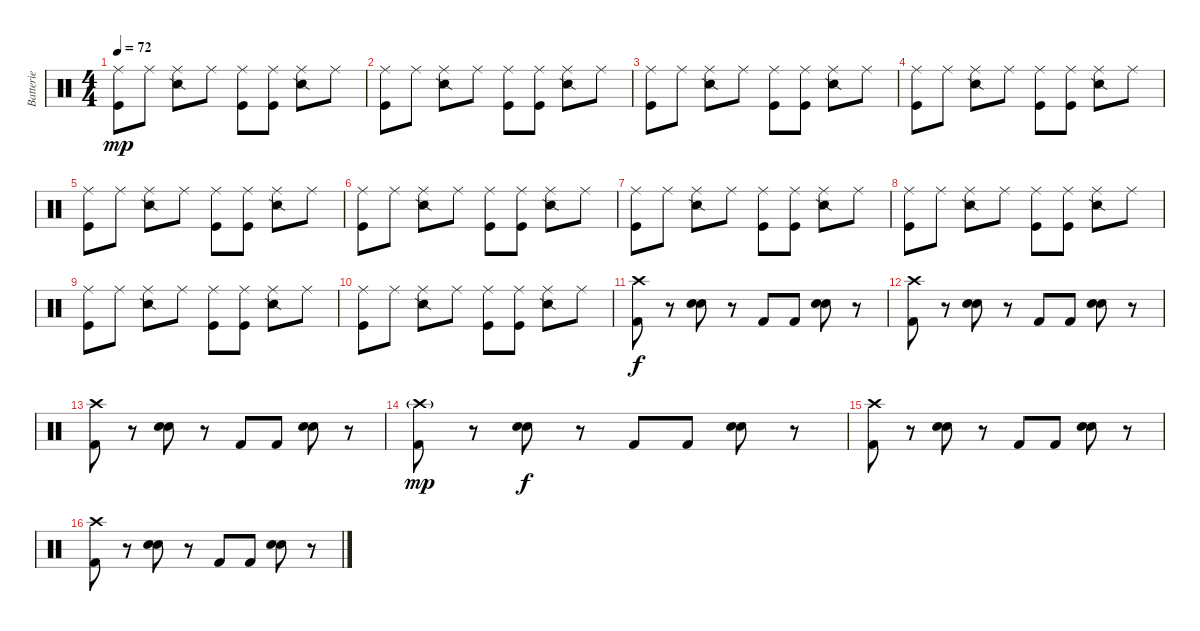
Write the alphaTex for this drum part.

\track ("Batterie" "Batterie") {instrument percussion}
\staff {score}
\articulation defaults
\ts (4 4)
\tempo 72
\clef neutral
\ks c
("Ride (middle)" "Kick (hit)").8{dy mp} "Ride (middle)".8 ("Ride (middle)" "Snare (side stick) 2").8 "Ride (middle)".8 ("Ride (middle)" "Kick (hit)").8 ("Ride (middle)" "Kick (hit)").8 ("Ride (middle)" "Snare (side stick) 2").8 "Ride (middle)".8 |
("Ride (middle)" "Kick (hit)").8 "Ride (middle)".8 ("Ride (middle)" "Snare (side stick) 2").8 "Ride (middle)".8 ("Ride (middle)" "Kick (hit)").8 ("Ride (middle)" "Kick (hit)").8 ("Ride (middle)" "Snare (side stick) 2").8 "Ride (middle)".8 |
("Ride (middle)" "Kick (hit)").8 "Ride (middle)".8 ("Ride (middle)" "Snare (side stick) 2").8 "Ride (middle)".8 ("Ride (middle)" "Kick (hit)").8 ("Ride (middle)" "Kick (hit)").8 ("Ride (middle)" "Snare (side stick) 2").8 "Ride (middle)".8 |
("Ride (middle)" "Kick (hit)").8 "Ride (middle)".8 ("Ride (middle)" "Snare (side stick) 2").8 "Ride (middle)".8 ("Ride (middle)" "Kick (hit)").8 ("Ride (middle)" "Kick (hit)").8 ("Ride (middle)" "Snare (side stick) 2").8 "Ride (middle)".8 |
("Ride (middle)" "Kick (hit)").8 "Ride (middle)".8 ("Ride (middle)" "Snare (side stick) 2").8 "Ride (middle)".8 ("Ride (middle)" "Kick (hit)").8 ("Ride (middle)" "Kick (hit)").8 ("Ride (middle)" "Snare (side stick) 2").8 "Ride (middle)".8 |
("Ride (middle)" "Kick (hit)").8 "Ride (middle)".8 ("Ride (middle)" "Snare (side stick) 2").8 "Ride (middle)".8 ("Ride (middle)" "Kick (hit)").8 ("Ride (middle)" "Kick (hit)").8 ("Ride (middle)" "Snare (side stick) 2").8 "Ride (middle)".8 |
("Ride (middle)" "Kick (hit)").8 "Ride (middle)".8 ("Ride (middle)" "Snare (side stick) 2").8 "Ride (middle)".8 ("Ride (middle)" "Kick (hit)").8 ("Ride (middle)" "Kick (hit)").8 ("Ride (middle)" "Snare (side stick) 2").8 "Ride (middle)".8 |
("Ride (middle)" "Kick (hit)").8 "Ride (middle)".8 ("Ride (middle)" "Snare (side stick) 2").8 "Ride (middle)".8 ("Ride (middle)" "Kick (hit)").8 ("Ride (middle)" "Kick (hit)").8 ("Ride (middle)" "Snare (side stick) 2").8 "Ride (middle)".8 |
("Ride (middle)" "Kick (hit)").8 "Ride (middle)".8 ("Ride (middle)" "Snare (side stick) 2").8 "Ride (middle)".8 ("Ride (middle)" "Kick (hit)").8 ("Ride (middle)" "Kick (hit)").8 ("Ride (middle)" "Snare (side stick) 2").8 "Ride (middle)".8 |
("Ride (middle)" "Kick (hit)").8 "Ride (middle)".8 ("Ride (middle)" "Snare (side stick) 2").8 "Ride (middle)".8 ("Ride (middle)" "Kick (hit)").8 ("Ride (middle)" "Kick (hit)").8 ("Ride (middle)" "Snare (side stick) 2").8 "Ride (middle)".8 |
("Crash high (hit)" "Kick (hit) 2").8{dy f} r.8 ("Snare (hit) 2" "Snare (hit) 2").8 r.8 "Kick (hit) 2".8 "Kick (hit) 2".8 ("Snare (hit) 2" "Snare (hit) 2").8 r.8 |
("Crash high (hit)" "Kick (hit) 2").8 r.8 ("Snare (hit) 2" "Snare (hit) 2").8 r.8 "Kick (hit) 2".8 "Kick (hit) 2".8 ("Snare (hit) 2" "Snare (hit) 2").8 r.8 |
("Crash high (hit)" "Kick (hit) 2").8 r.8 ("Snare (hit) 2" "Snare (hit) 2").8 r.8 "Kick (hit) 2".8 "Kick (hit) 2".8 ("Snare (hit) 2" "Snare (hit) 2").8 r.8 |
("Crash high (hit)"{g} "Kick (hit) 2").8{dy mp} r.8 ("Snare (hit) 2" "Snare (hit) 2").8{dy f} r.8 "Kick (hit) 2".8 "Kick (hit) 2".8 ("Snare (hit) 2" "Snare (hit) 2").8 r.8 |
("Crash high (hit)" "Kick (hit) 2").8 r.8 ("Snare (hit) 2" "Snare (hit) 2").8 r.8 "Kick (hit) 2".8 "Kick (hit) 2".8 ("Snare (hit) 2" "Snare (hit) 2").8 r.8 |
("Crash high (hit)" "Kick (hit) 2").8 r.8 ("Snare (hit) 2" "Snare (hit) 2").8 r.8 "Kick (hit) 2".8 "Kick (hit) 2".8 ("Snare (hit) 2" "Snare (hit) 2").8 r.8
